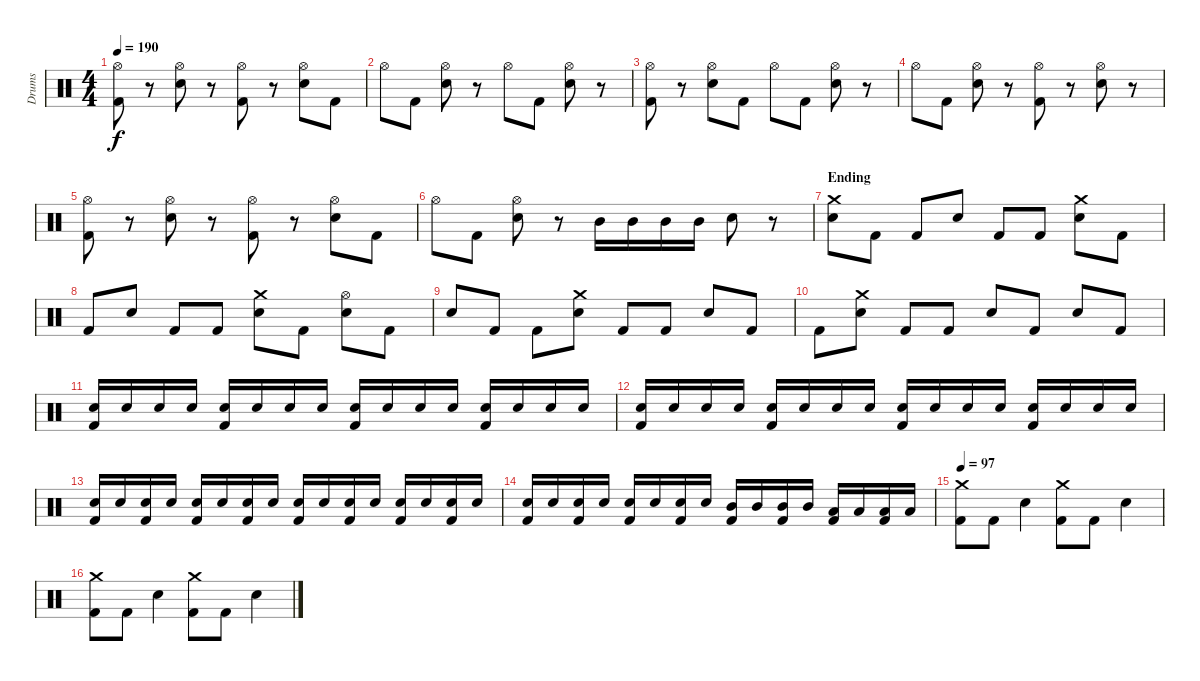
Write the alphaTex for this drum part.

\track ("Drums" "Drums") {instrument percussion}
\staff {score}
\articulation defaults
\ts (4 4)
\tempo 190
\clef neutral
\ks c
("Hi-Hat (open)" "Kick (hit) 2").8{dy f} r.8 ("Hi-Hat (open)" "Snare (hit) 2").8 r.8 ("Hi-Hat (open)" "Kick (hit) 2").8 r.8 ("Hi-Hat (open)" "Snare (hit) 2").8 "Kick (hit) 2".8 |
"Hi-Hat (open)".8 "Kick (hit) 2".8 ("Hi-Hat (open)" "Snare (hit) 2").8 r.8 "Hi-Hat (open)".8 "Kick (hit) 2".8 ("Hi-Hat (open)" "Snare (hit) 2").8 r.8 |
("Hi-Hat (open)" "Kick (hit) 2").8 r.8 ("Hi-Hat (open)" "Snare (hit) 2").8 "Kick (hit) 2".8 "Hi-Hat (open)".8 "Kick (hit) 2".8 ("Hi-Hat (open)" "Snare (hit) 2").8 r.8 |
"Hi-Hat (open)".8 "Kick (hit) 2".8 ("Hi-Hat (open)" "Snare (hit) 2").8 r.8 ("Hi-Hat (open)" "Kick (hit) 2").8 r.8 ("Hi-Hat (open)" "Snare (hit) 2").8 r.8 |
("Hi-Hat (open)" "Kick (hit) 2").8 r.8 ("Hi-Hat (open)" "Snare (hit) 2").8 r.8 ("Hi-Hat (open)" "Kick (hit) 2").8 r.8 ("Hi-Hat (open)" "Snare (hit) 2").8 "Kick (hit) 2".8 |
"Hi-Hat (open)".8 "Kick (hit) 2".8 ("Hi-Hat (open)" "Snare (hit) 2").8 r.8 "Mid Tom (hit)".16 "Mid Tom (hit)".16 "Mid Tom (hit)".16 "Mid Tom (hit)".16 "Snare (hit) 2".8 r.8 |
\section ("" "Ending")
("Crash medium (hit)" "Snare (hit) 2").8 "Kick (hit) 2".8 "Kick (hit) 2".8 "Snare (hit) 2".8 "Kick (hit) 2".8 "Kick (hit) 2".8 ("Crash medium (hit)" "Snare (hit) 2").8 "Kick (hit) 2".8 |
"Kick (hit) 2".8 "Snare (hit) 2".8 "Kick (hit) 2".8 "Kick (hit) 2".8 ("Crash medium (hit)" "Snare (hit) 2").8 "Kick (hit) 2".8 ("Hi-Hat (open)" "Snare (hit) 2").8 "Kick (hit) 2".8 |
"Snare (hit) 2".8 "Kick (hit) 2".8 "Kick (hit) 2".8 ("Crash medium (hit)" "Snare (hit) 2").8 "Kick (hit) 2".8 "Kick (hit) 2".8 "Snare (hit) 2".8 "Kick (hit) 2".8 |
"Kick (hit) 2".8 ("Crash medium (hit)" "Snare (hit) 2").8 "Kick (hit) 2".8 "Kick (hit) 2".8 "Snare (hit) 2".8 "Kick (hit) 2".8 "Snare (hit) 2".8 "Kick (hit) 2".8 |
("Snare (hit) 2" "Kick (hit) 2").16 "Snare (hit) 2".16 "Snare (hit) 2".16 "Snare (hit) 2".16 ("Snare (hit) 2" "Kick (hit) 2").16 "Snare (hit) 2".16 "Snare (hit) 2".16 "Snare (hit) 2".16 ("Snare (hit) 2" "Kick (hit) 2").16 "Snare (hit) 2".16 "Snare (hit) 2".16 "Snare (hit) 2".16 ("Snare (hit) 2" "Kick (hit) 2").16 "Snare (hit) 2".16 "Snare (hit) 2".16 "Snare (hit) 2".16 |
("Snare (hit) 2" "Kick (hit) 2").16 "Snare (hit) 2".16 "Snare (hit) 2".16 "Snare (hit) 2".16 ("Snare (hit) 2" "Kick (hit) 2").16 "Snare (hit) 2".16 "Snare (hit) 2".16 "Snare (hit) 2".16 ("Snare (hit) 2" "Kick (hit) 2").16 "Snare (hit) 2".16 "Snare (hit) 2".16 "Snare (hit) 2".16 ("Snare (hit) 2" "Kick (hit) 2").16 "Snare (hit) 2".16 "Snare (hit) 2".16 "Snare (hit) 2".16 |
("Snare (hit) 2" "Kick (hit) 2").16 "Snare (hit) 2".16 ("Snare (hit) 2" "Kick (hit) 2").16 "Snare (hit) 2".16 ("Snare (hit) 2" "Kick (hit) 2").16 "Snare (hit) 2".16 ("Snare (hit) 2" "Kick (hit) 2").16 "Snare (hit) 2".16 ("Snare (hit) 2" "Kick (hit) 2").16 "Snare (hit) 2".16 ("Snare (hit) 2" "Kick (hit) 2").16 "Snare (hit) 2".16 ("Snare (hit) 2" "Kick (hit) 2").16 "Snare (hit) 2".16 ("Snare (hit) 2" "Kick (hit) 2").16 "Snare (hit) 2".16 |
("Snare (hit) 2" "Kick (hit) 2").16 "Snare (hit) 2".16 ("Snare (hit) 2" "Kick (hit) 2").16 "Snare (hit) 2".16 ("Snare (hit) 2" "Kick (hit) 2").16 "Snare (hit) 2".16 ("Snare (hit) 2" "Kick (hit) 2").16 "Snare (hit) 2".16 ("Mid Tom (hit)" "Kick (hit) 2").16 "Mid Tom (hit)".16 ("Mid Tom (hit)" "Kick (hit) 2").16 "Mid Tom (hit)".16 ("Low Tom (hit)" "Kick (hit) 2").16 "Low Tom (hit)".16 ("Low Tom (hit)" "Kick (hit) 2").16 "Low Tom (hit)".16 |
\tempo 97
("Crash medium (hit)" "Kick (hit) 2").8 "Kick (hit) 2".8 "Snare (hit) 2".4 ("Crash medium (hit)" "Kick (hit) 2").8 "Kick (hit) 2".8 "Snare (hit) 2".4 |
("Crash medium (hit)" "Kick (hit) 2").8 "Kick (hit) 2".8 "Snare (hit) 2".4 ("Crash medium (hit)" "Kick (hit) 2").8 "Kick (hit) 2".8 "Snare (hit) 2".4
